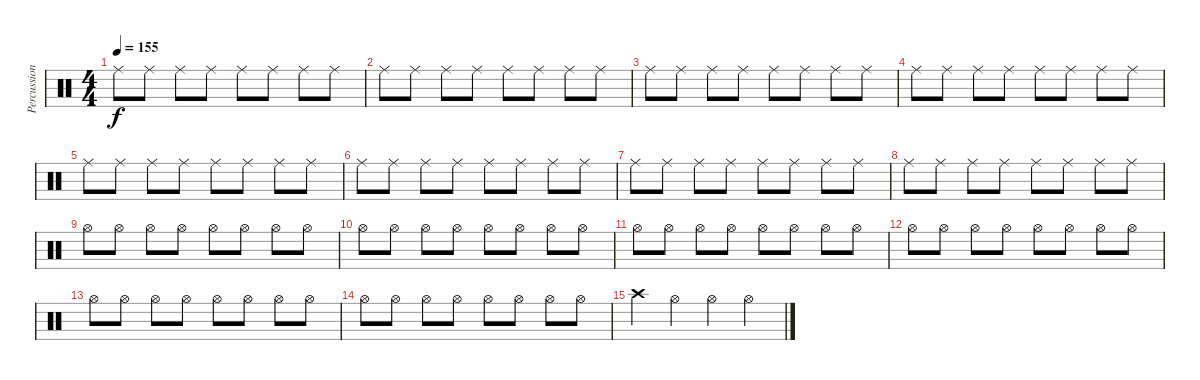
\track ("Percussion 2" "Percussion") {instrument percussion}
\staff {score}
\articulation defaults
\ts (4 4)
\tempo 155
\clef neutral
\ks c "Ride (middle)".8{dy f} "Ride (middle)".8 "Ride (middle)".8 "Ride (middle)".8 "Ride (middle)".8 "Ride (middle)".8 "Ride (middle)".8 "Ride (middle)".8
|
"Ride (middle)".8 "Ride (middle)".8 "Ride (middle)".8 "Ride (middle)".8 "Ride (middle)".8 "Ride (middle)".8 "Ride (middle)".8 "Ride (middle)".8 |
"Ride (middle)".8 "Ride (middle)".8 "Ride (middle)".8 "Ride (middle)".8 "Ride (middle)".8 "Ride (middle)".8 "Ride (middle)".8 "Ride (middle)".8 |
"Ride (middle)".8 "Ride (middle)".8 "Ride (middle)".8 "Ride (middle)".8 "Ride (middle)".8 "Ride (middle)".8 "Ride (middle)".8 "Ride (middle)".8 |
"Ride (middle)".8 "Ride (middle)".8 "Ride (middle)".8 "Ride (middle)".8 "Ride (middle)".8 "Ride (middle)".8 "Ride (middle)".8 "Ride (middle)".8 |
"Ride (middle)".8 "Ride (middle)".8 "Ride (middle)".8 "Ride (middle)".8 "Ride (middle)".8 "Ride (middle)".8 "Ride (middle)".8 "Ride (middle)".8 |
"Ride (middle)".8 "Ride (middle)".8 "Ride (middle)".8 "Ride (middle)".8 "Ride (middle)".8 "Ride (middle)".8 "Ride (middle)".8 "Ride (middle)".8 |
"Ride (middle)".8 "Ride (middle)".8 "Ride (middle)".8 "Ride (middle)".8 "Ride (middle)".8 "Ride (middle)".8 "Ride (middle)".8 "Ride (middle)".8 |
"Hi-Hat (open)".8 "Hi-Hat (open)".8 "Hi-Hat (open)".8 "Hi-Hat (open)".8 "Hi-Hat (open)".8 "Hi-Hat (open)".8 "Hi-Hat (open)".8 "Hi-Hat (open)".8 |
"Hi-Hat (open)".8 "Hi-Hat (open)".8 "Hi-Hat (open)".8 "Hi-Hat (open)".8 "Hi-Hat (open)".8 "Hi-Hat (open)".8 "Hi-Hat (open)".8 "Hi-Hat (open)".8 |
"Hi-Hat (open)".8 "Hi-Hat (open)".8 "Hi-Hat (open)".8 "Hi-Hat (open)".8 "Hi-Hat (open)".8 "Hi-Hat (open)".8 "Hi-Hat (open)".8 "Hi-Hat (open)".8 |
"Hi-Hat (open)".8 "Hi-Hat (open)".8 "Hi-Hat (open)".8 "Hi-Hat (open)".8 "Hi-Hat (open)".8 "Hi-Hat (open)".8 "Hi-Hat (open)".8 "Hi-Hat (open)".8 |
"Hi-Hat (open)".8 "Hi-Hat (open)".8 "Hi-Hat (open)".8 "Hi-Hat (open)".8 "Hi-Hat (open)".8 "Hi-Hat (open)".8 "Hi-Hat (open)".8 "Hi-Hat (open)".8 |
"Hi-Hat (open)".8 "Hi-Hat (open)".8 "Hi-Hat (open)".8 "Hi-Hat (open)".8 "Hi-Hat (open)".8 "Hi-Hat (open)".8 "Hi-Hat (open)".8 "Hi-Hat (open)".8 |
"Crash high (hit)".4 "Hi-Hat (open)".4 "Hi-Hat (open)".4 "Hi-Hat (open)".4
